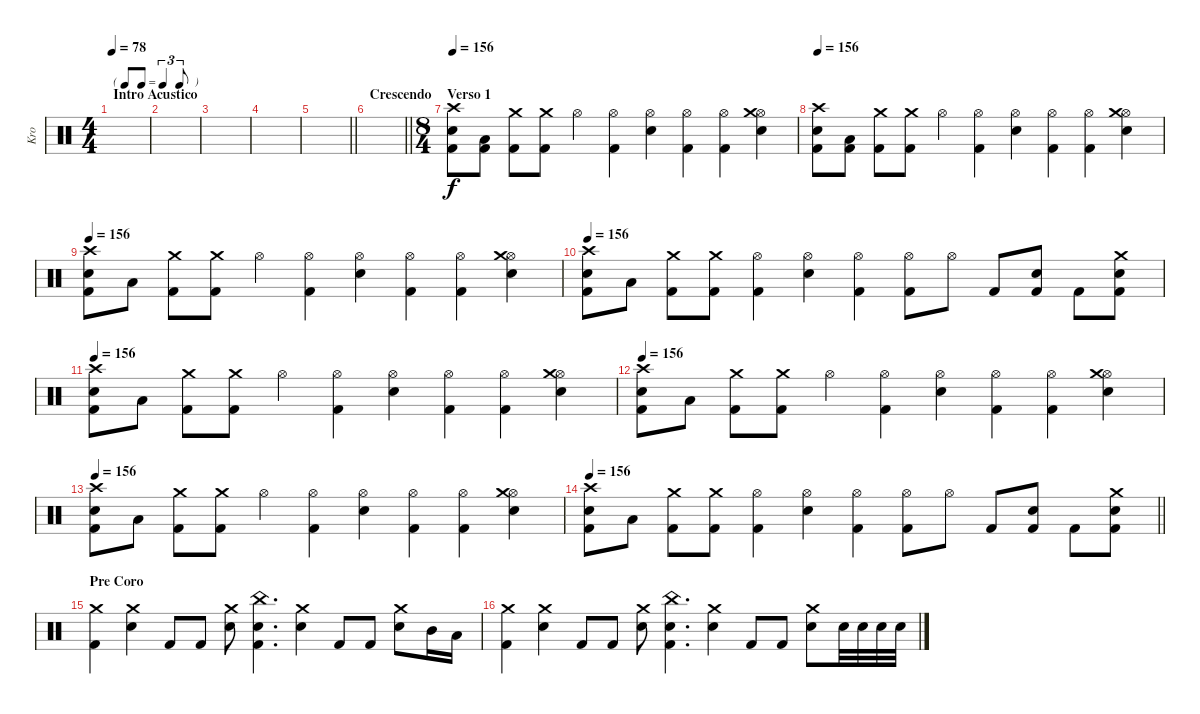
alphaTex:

\track ("Kro" "Kro") {instrument percussion}
\staff {score}
\articulation defaults
\ts (4 4)
\tf triplet8th
\section ("" "Intro Acustico")
\tempo 78
\clef neutral
\ks c
|
|
|
|
\barLineRight lightlight
|
\section ("" "Crescendo")
\barLineRight lightlight
|
\ts (8 4)
\section ("" "Verso 1")
\tempo 156
("Crash high (hit)" "Kick (hit) 2" "Electric Snare (hit)").8 ("Low Tom (hit)" "Kick (hit) 2").8 ("Crash medium (hit)" "Kick (hit) 2").8 ("Crash medium (hit)" "Kick (hit) 2").8 "Hi-Hat (open)".4 ("Hi-Hat (open)" "Kick (hit) 2").4 ("Hi-Hat (open)" "Electric Snare (hit)").4 ("Hi-Hat (open)" "Kick (hit) 2").4 ("Hi-Hat (open)" "Kick (hit) 2").4 ("Hi-Hat (open)" "Crash medium (hit)" "Electric Snare (hit)").4 |
\tempo 156
("Crash high (hit)" "Kick (hit) 2" "Electric Snare (hit)").8 ("Low Tom (hit)" "Kick (hit) 2").8 ("Crash medium (hit)" "Kick (hit) 2").8 ("Crash medium (hit)" "Kick (hit) 2").8 "Hi-Hat (open)".4 ("Hi-Hat (open)" "Kick (hit) 2").4 ("Hi-Hat (open)" "Electric Snare (hit)").4 ("Hi-Hat (open)" "Kick (hit) 2").4 ("Hi-Hat (open)" "Kick (hit) 2").4 ("Hi-Hat (open)" "Crash medium (hit)" "Electric Snare (hit)").4 |
\tempo 156
("Crash high (hit)" "Kick (hit) 2" "Electric Snare (hit)").8 "Low Tom (hit)".8 ("Crash medium (hit)" "Kick (hit) 2").8 ("Crash medium (hit)" "Kick (hit) 2").8 "Hi-Hat (open)".4 ("Hi-Hat (open)" "Kick (hit) 2").4 ("Hi-Hat (open)" "Electric Snare (hit)").4 ("Hi-Hat (open)" "Kick (hit) 2").4 ("Hi-Hat (open)" "Kick (hit) 2").4 ("Hi-Hat (open)" "Crash medium (hit)" "Electric Snare (hit)").4 |
\tempo 156
("Crash high (hit)" "Kick (hit) 2" "Electric Snare (hit)").8 "Low Tom (hit)".8 ("Crash medium (hit)" "Kick (hit) 2").8 ("Crash medium (hit)" "Kick (hit) 2").8 ("Hi-Hat (open)" "Kick (hit) 2").4 ("Hi-Hat (open)" "Electric Snare (hit)").4 ("Hi-Hat (open)" "Kick (hit) 2").4 ("Hi-Hat (open)" "Kick (hit) 2").8 "Hi-Hat (open)".8 "Kick (hit) 2".8 ("Electric Snare (hit)" "Kick (hit) 2").8 "Kick (hit) 2".8 ("Crash medium (hit)" "Electric Snare (hit)" "Kick (hit) 2").8 |
\tempo 156
("Crash high (hit)" "Kick (hit) 2" "Electric Snare (hit)").8 "Low Tom (hit)".8 ("Crash medium (hit)" "Kick (hit) 2").8 ("Crash medium (hit)" "Kick (hit) 2").8 "Hi-Hat (open)".4 ("Hi-Hat (open)" "Kick (hit) 2").4 ("Hi-Hat (open)" "Electric Snare (hit)").4 ("Hi-Hat (open)" "Kick (hit) 2").4 ("Hi-Hat (open)" "Kick (hit) 2").4 ("Hi-Hat (open)" "Crash medium (hit)" "Electric Snare (hit)").4 |
\tempo 156
("Crash high (hit)" "Kick (hit) 2" "Electric Snare (hit)").8 "Low Tom (hit)".8 ("Crash medium (hit)" "Kick (hit) 2").8 ("Crash medium (hit)" "Kick (hit) 2").8 "Hi-Hat (open)".4 ("Hi-Hat (open)" "Kick (hit) 2").4 ("Hi-Hat (open)" "Electric Snare (hit)").4 ("Hi-Hat (open)" "Kick (hit) 2").4 ("Hi-Hat (open)" "Kick (hit) 2").4 ("Hi-Hat (open)" "Crash medium (hit)" "Electric Snare (hit)").4 |
\tempo 156
("Crash high (hit)" "Kick (hit) 2" "Electric Snare (hit)").8 "Low Tom (hit)".8 ("Crash medium (hit)" "Kick (hit) 2").8 ("Crash medium (hit)" "Kick (hit) 2").8 "Hi-Hat (open)".4 ("Hi-Hat (open)" "Kick (hit) 2").4 ("Hi-Hat (open)" "Electric Snare (hit)").4 ("Hi-Hat (open)" "Kick (hit) 2").4 ("Hi-Hat (open)" "Kick (hit) 2").4 ("Hi-Hat (open)" "Crash medium (hit)" "Electric Snare (hit)").4 |
\tempo 156
\barLineRight lightlight
("Crash high (hit)" "Kick (hit) 2" "Electric Snare (hit)").8 "Low Tom (hit)".8 ("Crash medium (hit)" "Kick (hit) 2").8 ("Crash medium (hit)" "Kick (hit) 2").8 ("Hi-Hat (open)" "Kick (hit) 2").4 ("Hi-Hat (open)" "Electric Snare (hit)").4 ("Hi-Hat (open)" "Kick (hit) 2").4 ("Hi-Hat (open)" "Kick (hit) 2").8 "Hi-Hat (open)".8 "Kick (hit) 2".8 ("Electric Snare (hit)" "Kick (hit) 2").8 "Kick (hit) 2".8 ("Crash medium (hit)" "Electric Snare (hit)" "Kick (hit) 2").8 |
\section ("" "Pre Coro")
("Crash medium (hit)" "Kick (hit) 2").4 ("Crash medium (hit)" "Electric Snare (hit)").4 "Kick (hit) 2".8 "Kick (hit) 2".8 ("Crash medium (hit)" "Electric Snare (hit)").8 ("China (hit)" "Electric Snare (hit)" "Kick (hit) 2").4{d} ("Crash medium (hit)" "Electric Snare (hit)").4 "Kick (hit) 2".8 "Kick (hit) 2".8 ("Crash medium (hit)" "Electric Snare (hit)").8 "Mid Tom (hit)".16 "Low Tom (hit)".16 |
("Crash medium (hit)" "Kick (hit) 2").4 ("Crash medium (hit)" "Electric Snare (hit)").4 "Kick (hit) 2".8 "Kick (hit) 2".8 ("Crash medium (hit)" "Electric Snare (hit)").8 ("China (hit)" "Electric Snare (hit)" "Kick (hit) 2").4{d} ("Crash medium (hit)" "Electric Snare (hit)").4 "Kick (hit) 2".8 "Kick (hit) 2".8 ("Crash medium (hit)" "Electric Snare (hit)").8 "Electric Snare (hit)".32 "Electric Snare (hit)".32 "Electric Snare (hit)".32 "Electric Snare (hit)".32
